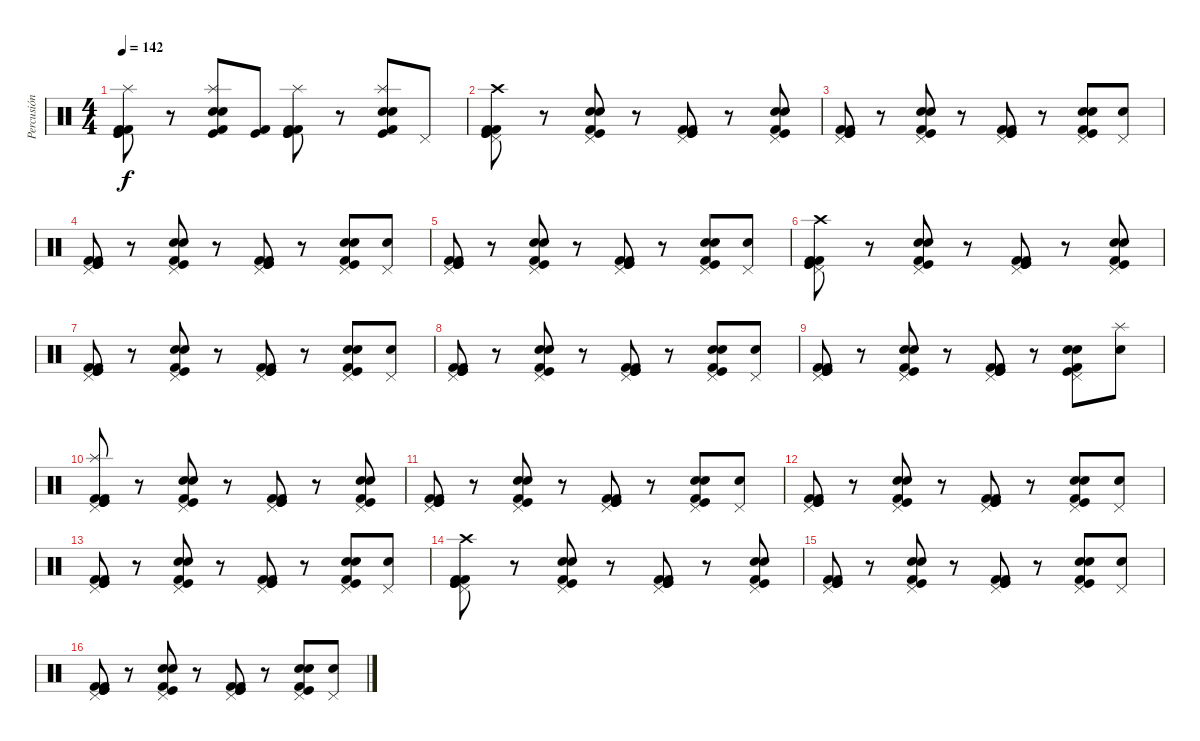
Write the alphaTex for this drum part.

\track ("Percusión" "Percusión") {instrument percussion}
\staff {score}
\articulation defaults
\ts (4 4)
\tempo 142
\clef neutral
\ks c
("Kick (hit) 2" "Kick (hit)" "Splash (hit)" "Kick (hit) 2" "Kick (hit)").8{dy f} r.8 ("Snare (hit) 2" "Splash (hit)" "Electric Snare (hit)" "Kick (hit)" "Kick (hit) 2").8 ("Kick (hit) 2" "Kick (hit)").8 ("Kick (hit) 2" "Kick (hit)" "Splash (hit)" "Kick (hit) 2" "Kick (hit)").8 r.8 ("Snare (hit) 2" "Splash (hit)" "Electric Snare (hit)" "Kick (hit)" "Kick (hit) 2").8 "Pedal Hi-Hat (hit)".8 |
("Kick (hit) 2" "Kick (hit)" "Crash high (hit)" "Pedal Hi-Hat (hit)" "Kick (hit) 2" "Kick (hit)").8 r.8 ("Snare (hit) 2" "Pedal Hi-Hat (hit)" "Electric Snare (hit)" "Kick (hit)" "Kick (hit) 2").8 r.8 ("Kick (hit) 2" "Kick (hit)" "Pedal Hi-Hat (hit)" "Kick (hit) 2" "Kick (hit)").8 r.8 ("Snare (hit) 2" "Pedal Hi-Hat (hit)" "Electric Snare (hit)" "Kick (hit)" "Kick (hit) 2").8 |
("Kick (hit) 2" "Kick (hit)" "Pedal Hi-Hat (hit)" "Kick (hit) 2" "Kick (hit)").8 r.8 ("Snare (hit) 2" "Pedal Hi-Hat (hit)" "Electric Snare (hit)" "Kick (hit)" "Kick (hit) 2").8 r.8 ("Kick (hit) 2" "Kick (hit)" "Pedal Hi-Hat (hit)" "Kick (hit) 2" "Kick (hit)").8 r.8 ("Snare (hit) 2" "Pedal Hi-Hat (hit)" "Electric Snare (hit)" "Kick (hit)" "Kick (hit) 2").8 ("Electric Snare (hit)" "Pedal Hi-Hat (hit)").8 |
("Kick (hit) 2" "Kick (hit)" "Pedal Hi-Hat (hit)" "Kick (hit) 2" "Kick (hit)").8 r.8 ("Snare (hit) 2" "Pedal Hi-Hat (hit)" "Electric Snare (hit)" "Kick (hit)" "Kick (hit) 2").8 r.8 ("Kick (hit) 2" "Kick (hit)" "Pedal Hi-Hat (hit)" "Kick (hit) 2" "Kick (hit)").8 r.8 ("Snare (hit) 2" "Pedal Hi-Hat (hit)" "Electric Snare (hit)" "Kick (hit)" "Kick (hit) 2").8 ("Electric Snare (hit)" "Pedal Hi-Hat (hit)").8 |
("Kick (hit) 2" "Kick (hit)" "Pedal Hi-Hat (hit)" "Kick (hit) 2" "Kick (hit)").8 r.8 ("Snare (hit) 2" "Pedal Hi-Hat (hit)" "Electric Snare (hit)" "Kick (hit)" "Kick (hit) 2").8 r.8 ("Kick (hit) 2" "Kick (hit)" "Pedal Hi-Hat (hit)" "Kick (hit) 2" "Kick (hit)").8 r.8 ("Snare (hit) 2" "Pedal Hi-Hat (hit)" "Electric Snare (hit)" "Kick (hit)" "Kick (hit) 2").8 ("Electric Snare (hit)" "Pedal Hi-Hat (hit)").8 |
("Kick (hit) 2" "Kick (hit)" "Crash high (hit)" "Pedal Hi-Hat (hit)" "Kick (hit) 2" "Kick (hit)").8 r.8 ("Snare (hit) 2" "Pedal Hi-Hat (hit)" "Electric Snare (hit)" "Kick (hit)" "Kick (hit) 2").8 r.8 ("Kick (hit) 2" "Kick (hit)" "Pedal Hi-Hat (hit)" "Kick (hit) 2" "Kick (hit)").8 r.8 ("Snare (hit) 2" "Pedal Hi-Hat (hit)" "Electric Snare (hit)" "Kick (hit)" "Kick (hit) 2").8 |
("Kick (hit) 2" "Kick (hit)" "Pedal Hi-Hat (hit)" "Kick (hit) 2" "Kick (hit)").8 r.8 ("Snare (hit) 2" "Pedal Hi-Hat (hit)" "Electric Snare (hit)" "Kick (hit)" "Kick (hit) 2").8 r.8 ("Kick (hit) 2" "Kick (hit)" "Pedal Hi-Hat (hit)" "Kick (hit) 2" "Kick (hit)").8 r.8 ("Snare (hit) 2" "Pedal Hi-Hat (hit)" "Electric Snare (hit)" "Kick (hit)" "Kick (hit) 2").8 ("Electric Snare (hit)" "Pedal Hi-Hat (hit)").8 |
("Kick (hit) 2" "Kick (hit)" "Pedal Hi-Hat (hit)" "Kick (hit) 2" "Kick (hit)").8 r.8 ("Snare (hit) 2" "Pedal Hi-Hat (hit)" "Electric Snare (hit)" "Kick (hit)" "Kick (hit) 2").8 r.8 ("Kick (hit) 2" "Kick (hit)" "Pedal Hi-Hat (hit)" "Kick (hit) 2" "Kick (hit)").8 r.8 ("Snare (hit) 2" "Pedal Hi-Hat (hit)" "Electric Snare (hit)" "Kick (hit)" "Kick (hit) 2").8 ("Electric Snare (hit)" "Pedal Hi-Hat (hit)").8 |
("Kick (hit) 2" "Kick (hit)" "Pedal Hi-Hat (hit)" "Kick (hit) 2" "Kick (hit)").8 r.8 ("Snare (hit) 2" "Pedal Hi-Hat (hit)" "Electric Snare (hit)" "Kick (hit)" "Kick (hit) 2").8 r.8 ("Kick (hit) 2" "Kick (hit)" "Pedal Hi-Hat (hit)" "Kick (hit) 2" "Kick (hit)").8 r.8 ("Snare (hit) 2" "Pedal Hi-Hat (hit)" "Electric Snare (hit)" "Kick (hit)" "Kick (hit) 2").8 ("Electric Snare (hit)" "Splash (hit)").8 |
("Kick (hit) 2" "Kick (hit)" "Splash (hit)" "Pedal Hi-Hat (hit)" "Kick (hit) 2" "Kick (hit)").8 r.8 ("Snare (hit) 2" "Pedal Hi-Hat (hit)" "Electric Snare (hit)" "Kick (hit)" "Kick (hit) 2").8 r.8 ("Kick (hit) 2" "Kick (hit)" "Pedal Hi-Hat (hit)" "Kick (hit) 2" "Kick (hit)").8 r.8 ("Snare (hit) 2" "Pedal Hi-Hat (hit)" "Electric Snare (hit)" "Kick (hit)" "Kick (hit) 2").8 |
("Kick (hit) 2" "Kick (hit)" "Pedal Hi-Hat (hit)" "Kick (hit) 2" "Kick (hit)").8 r.8 ("Snare (hit) 2" "Pedal Hi-Hat (hit)" "Electric Snare (hit)" "Kick (hit)" "Kick (hit) 2").8 r.8 ("Kick (hit) 2" "Kick (hit)" "Pedal Hi-Hat (hit)" "Kick (hit) 2" "Kick (hit)").8 r.8 ("Snare (hit) 2" "Pedal Hi-Hat (hit)" "Electric Snare (hit)" "Kick (hit)" "Kick (hit) 2").8 ("Electric Snare (hit)" "Pedal Hi-Hat (hit)").8 |
("Kick (hit) 2" "Kick (hit)" "Pedal Hi-Hat (hit)" "Kick (hit) 2" "Kick (hit)").8 r.8 ("Snare (hit) 2" "Pedal Hi-Hat (hit)" "Electric Snare (hit)" "Kick (hit)" "Kick (hit) 2").8 r.8 ("Kick (hit) 2" "Kick (hit)" "Pedal Hi-Hat (hit)" "Kick (hit) 2" "Kick (hit)").8 r.8 ("Snare (hit) 2" "Pedal Hi-Hat (hit)" "Electric Snare (hit)" "Kick (hit)" "Kick (hit) 2").8 ("Electric Snare (hit)" "Pedal Hi-Hat (hit)").8 |
("Kick (hit) 2" "Kick (hit)" "Pedal Hi-Hat (hit)" "Kick (hit) 2" "Kick (hit)").8 r.8 ("Snare (hit) 2" "Pedal Hi-Hat (hit)" "Electric Snare (hit)" "Kick (hit)" "Kick (hit) 2").8 r.8 ("Kick (hit) 2" "Kick (hit)" "Pedal Hi-Hat (hit)" "Kick (hit) 2" "Kick (hit)").8 r.8 ("Snare (hit) 2" "Pedal Hi-Hat (hit)" "Electric Snare (hit)" "Kick (hit)" "Kick (hit) 2").8 ("Electric Snare (hit)" "Pedal Hi-Hat (hit)").8 |
("Kick (hit) 2" "Kick (hit)" "Crash high (hit)" "Pedal Hi-Hat (hit)" "Kick (hit) 2" "Kick (hit)").8 r.8 ("Snare (hit) 2" "Pedal Hi-Hat (hit)" "Electric Snare (hit)" "Kick (hit)" "Kick (hit) 2").8 r.8 ("Kick (hit) 2" "Kick (hit)" "Pedal Hi-Hat (hit)" "Kick (hit) 2" "Kick (hit)").8 r.8 ("Snare (hit) 2" "Pedal Hi-Hat (hit)" "Electric Snare (hit)" "Kick (hit)" "Kick (hit) 2").8 |
("Kick (hit) 2" "Kick (hit)" "Pedal Hi-Hat (hit)" "Kick (hit) 2" "Kick (hit)").8 r.8 ("Snare (hit) 2" "Pedal Hi-Hat (hit)" "Electric Snare (hit)" "Kick (hit)" "Kick (hit) 2").8 r.8 ("Kick (hit) 2" "Kick (hit)" "Pedal Hi-Hat (hit)" "Kick (hit) 2" "Kick (hit)").8 r.8 ("Snare (hit) 2" "Pedal Hi-Hat (hit)" "Electric Snare (hit)" "Kick (hit)" "Kick (hit) 2").8 ("Electric Snare (hit)" "Pedal Hi-Hat (hit)").8 |
("Kick (hit) 2" "Kick (hit)" "Pedal Hi-Hat (hit)" "Kick (hit) 2" "Kick (hit)").8 r.8 ("Snare (hit) 2" "Pedal Hi-Hat (hit)" "Electric Snare (hit)" "Kick (hit)" "Kick (hit) 2").8 r.8 ("Kick (hit) 2" "Kick (hit)" "Pedal Hi-Hat (hit)" "Kick (hit) 2" "Kick (hit)").8 r.8 ("Snare (hit) 2" "Pedal Hi-Hat (hit)" "Electric Snare (hit)" "Kick (hit)" "Kick (hit) 2").8 ("Electric Snare (hit)" "Pedal Hi-Hat (hit)").8
